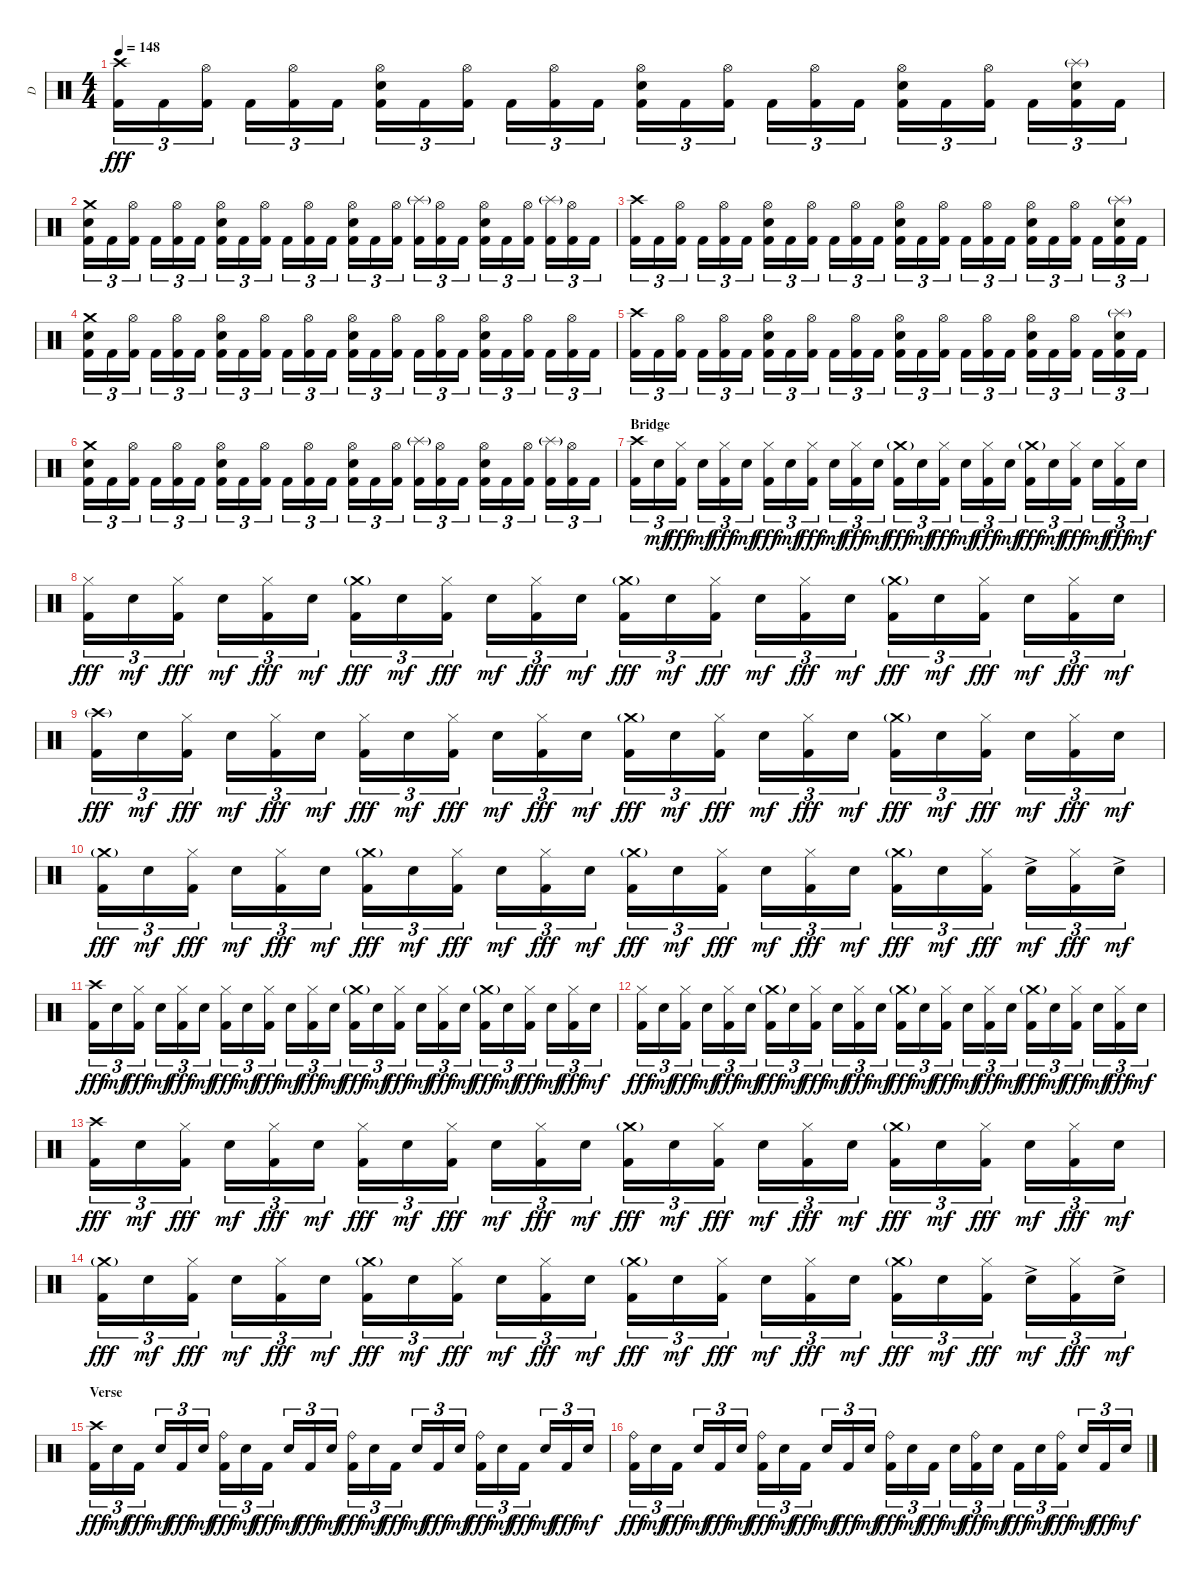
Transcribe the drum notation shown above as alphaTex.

\track ("D" "D") {instrument percussion}
\staff {score}
\articulation defaults
\ts (4 4)
\tempo 148
\clef neutral
\ks c
("Crash high (hit)" "Kick (hit) 2").16{tu (3 2) dy fff} "Kick (hit) 2".16{tu (3 2)} ("Hi-Hat (open)" "Kick (hit) 2").16{tu (3 2)} "Kick (hit) 2".16{tu (3 2)} ("Hi-Hat (open)" "Kick (hit) 2").16{tu (3 2)} "Kick (hit) 2".16{tu (3 2)} ("Hi-Hat (open)" "Electric Snare (hit)" "Kick (hit) 2").16{tu (3 2)} "Kick (hit) 2".16{tu (3 2)} ("Hi-Hat (open)" "Kick (hit) 2").16{tu (3 2)} "Kick (hit) 2".16{tu (3 2)} ("Hi-Hat (open)" "Kick (hit) 2").16{tu (3 2)} "Kick (hit) 2".16{tu (3 2)} ("Hi-Hat (open)" "Electric Snare (hit)" "Kick (hit) 2").16{tu (3 2)} "Kick (hit) 2".16{tu (3 2)} ("Hi-Hat (open)" "Kick (hit) 2").16{tu (3 2)} "Kick (hit) 2".16{tu (3 2)} ("Hi-Hat (open)" "Kick (hit) 2").16{tu (3 2)} "Kick (hit) 2".16{tu (3 2)} ("Hi-Hat (open)" "Electric Snare (hit)" "Kick (hit) 2").16{tu (3 2)} "Kick (hit) 2".16{tu (3 2)} ("Hi-Hat (open)" "Kick (hit) 2").16{tu (3 2)} "Kick (hit) 2".16{tu (3 2)} ("Splash (hit)"{g} "Electric Snare (hit)" "Kick (hit) 2").16{tu (3 2)} "Kick (hit) 2".16{tu (3 2)} |
("Crash medium (hit)" "Electric Snare (hit)" "Kick (hit) 2").16{tu (3 2)} "Kick (hit) 2".16{tu (3 2)} ("Hi-Hat (open)" "Kick (hit) 2").16{tu (3 2)} "Kick (hit) 2".16{tu (3 2)} ("Hi-Hat (open)" "Kick (hit) 2").16{tu (3 2)} "Kick (hit) 2".16{tu (3 2)} ("Hi-Hat (open)" "Electric Snare (hit)" "Kick (hit) 2").16{tu (3 2)} "Kick (hit) 2".16{tu (3 2)} ("Hi-Hat (open)" "Kick (hit) 2").16{tu (3 2)} "Kick (hit) 2".16{tu (3 2)} ("Hi-Hat (open)" "Kick (hit) 2").16{tu (3 2)} "Kick (hit) 2".16{tu (3 2)} ("Hi-Hat (open)" "Electric Snare (hit)" "Kick (hit) 2").16{tu (3 2)} "Kick (hit) 2".16{tu (3 2)} ("Hi-Hat (open)" "Kick (hit) 2").16{tu (3 2)} ("Splash (hit)"{g} "Kick (hit) 2").16{tu (3 2)} ("Hi-Hat (open)" "Kick (hit) 2").16{tu (3 2)} "Kick (hit) 2".16{tu (3 2)} ("Hi-Hat (open)" "Electric Snare (hit)" "Kick (hit) 2").16{tu (3 2)} "Kick (hit) 2".16{tu (3 2)} ("Hi-Hat (open)" "Kick (hit) 2").16{tu (3 2)} ("Splash (hit)"{g} "Kick (hit) 2").16{tu (3 2)} ("Hi-Hat (open)" "Kick (hit) 2").16{tu (3 2)} "Kick (hit) 2".16{tu (3 2)} |
("Crash high (hit)" "Kick (hit) 2").16{tu (3 2)} "Kick (hit) 2".16{tu (3 2)} ("Hi-Hat (open)" "Kick (hit) 2").16{tu (3 2)} "Kick (hit) 2".16{tu (3 2)} ("Hi-Hat (open)" "Kick (hit) 2").16{tu (3 2)} "Kick (hit) 2".16{tu (3 2)} ("Hi-Hat (open)" "Electric Snare (hit)" "Kick (hit) 2").16{tu (3 2)} "Kick (hit) 2".16{tu (3 2)} ("Hi-Hat (open)" "Kick (hit) 2").16{tu (3 2)} "Kick (hit) 2".16{tu (3 2)} ("Hi-Hat (open)" "Kick (hit) 2").16{tu (3 2)} "Kick (hit) 2".16{tu (3 2)} ("Hi-Hat (open)" "Electric Snare (hit)" "Kick (hit) 2").16{tu (3 2)} "Kick (hit) 2".16{tu (3 2)} ("Hi-Hat (open)" "Kick (hit) 2").16{tu (3 2)} "Kick (hit) 2".16{tu (3 2)} ("Hi-Hat (open)" "Kick (hit) 2").16{tu (3 2)} "Kick (hit) 2".16{tu (3 2)} ("Hi-Hat (open)" "Electric Snare (hit)" "Kick (hit) 2").16{tu (3 2)} "Kick (hit) 2".16{tu (3 2)} ("Hi-Hat (open)" "Kick (hit) 2").16{tu (3 2)} "Kick (hit) 2".16{tu (3 2)} ("Splash (hit)"{g} "Electric Snare (hit)" "Kick (hit) 2").16{tu (3 2)} "Kick (hit) 2".16{tu (3 2)} |
("Crash medium (hit)" "Electric Snare (hit)" "Kick (hit) 2").16{tu (3 2)} "Kick (hit) 2".16{tu (3 2)} ("Hi-Hat (open)" "Kick (hit) 2").16{tu (3 2)} "Kick (hit) 2".16{tu (3 2)} ("Hi-Hat (open)" "Kick (hit) 2").16{tu (3 2)} "Kick (hit) 2".16{tu (3 2)} ("Hi-Hat (open)" "Electric Snare (hit)" "Kick (hit) 2").16{tu (3 2)} "Kick (hit) 2".16{tu (3 2)} ("Hi-Hat (open)" "Kick (hit) 2").16{tu (3 2)} "Kick (hit) 2".16{tu (3 2)} ("Hi-Hat (open)" "Kick (hit) 2").16{tu (3 2)} "Kick (hit) 2".16{tu (3 2)} ("Hi-Hat (open)" "Electric Snare (hit)" "Kick (hit) 2").16{tu (3 2)} "Kick (hit) 2".16{tu (3 2)} ("Hi-Hat (open)" "Kick (hit) 2").16{tu (3 2)} "Kick (hit) 2".16{tu (3 2)} ("Hi-Hat (open)" "Kick (hit) 2").16{tu (3 2)} "Kick (hit) 2".16{tu (3 2)} ("Hi-Hat (open)" "Electric Snare (hit)" "Kick (hit) 2").16{tu (3 2)} "Kick (hit) 2".16{tu (3 2)} ("Hi-Hat (open)" "Kick (hit) 2").16{tu (3 2)} "Kick (hit) 2".16{tu (3 2)} ("Hi-Hat (open)" "Kick (hit) 2").16{tu (3 2)} "Kick (hit) 2".16{tu (3 2)} |
("Crash high (hit)" "Kick (hit) 2").16{tu (3 2)} "Kick (hit) 2".16{tu (3 2)} ("Hi-Hat (open)" "Kick (hit) 2").16{tu (3 2)} "Kick (hit) 2".16{tu (3 2)} ("Hi-Hat (open)" "Kick (hit) 2").16{tu (3 2)} "Kick (hit) 2".16{tu (3 2)} ("Hi-Hat (open)" "Electric Snare (hit)" "Kick (hit) 2").16{tu (3 2)} "Kick (hit) 2".16{tu (3 2)} ("Hi-Hat (open)" "Kick (hit) 2").16{tu (3 2)} "Kick (hit) 2".16{tu (3 2)} ("Hi-Hat (open)" "Kick (hit) 2").16{tu (3 2)} "Kick (hit) 2".16{tu (3 2)} ("Hi-Hat (open)" "Electric Snare (hit)" "Kick (hit) 2").16{tu (3 2)} "Kick (hit) 2".16{tu (3 2)} ("Hi-Hat (open)" "Kick (hit) 2").16{tu (3 2)} "Kick (hit) 2".16{tu (3 2)} ("Hi-Hat (open)" "Kick (hit) 2").16{tu (3 2)} "Kick (hit) 2".16{tu (3 2)} ("Hi-Hat (open)" "Electric Snare (hit)" "Kick (hit) 2").16{tu (3 2)} "Kick (hit) 2".16{tu (3 2)} ("Hi-Hat (open)" "Kick (hit) 2").16{tu (3 2)} "Kick (hit) 2".16{tu (3 2)} ("Splash (hit)"{g} "Electric Snare (hit)" "Kick (hit) 2").16{tu (3 2)} "Kick (hit) 2".16{tu (3 2)} |
("Crash medium (hit)" "Electric Snare (hit)" "Kick (hit) 2").16{tu (3 2)} "Kick (hit) 2".16{tu (3 2)} ("Hi-Hat (open)" "Kick (hit) 2").16{tu (3 2)} "Kick (hit) 2".16{tu (3 2)} ("Hi-Hat (open)" "Kick (hit) 2").16{tu (3 2)} "Kick (hit) 2".16{tu (3 2)} ("Hi-Hat (open)" "Electric Snare (hit)" "Kick (hit) 2").16{tu (3 2)} "Kick (hit) 2".16{tu (3 2)} ("Hi-Hat (open)" "Kick (hit) 2").16{tu (3 2)} "Kick (hit) 2".16{tu (3 2)} ("Hi-Hat (open)" "Kick (hit) 2").16{tu (3 2)} "Kick (hit) 2".16{tu (3 2)} ("Hi-Hat (open)" "Electric Snare (hit)" "Kick (hit) 2").16{tu (3 2)} "Kick (hit) 2".16{tu (3 2)} ("Hi-Hat (open)" "Kick (hit) 2").16{tu (3 2)} ("Splash (hit)"{g} "Kick (hit) 2").16{tu (3 2)} ("Hi-Hat (open)" "Kick (hit) 2").16{tu (3 2)} "Kick (hit) 2".16{tu (3 2)} ("Hi-Hat (open)" "Electric Snare (hit)" "Kick (hit) 2").16{tu (3 2)} "Kick (hit) 2".16{tu (3 2)} ("Hi-Hat (open)" "Kick (hit) 2").16{tu (3 2)} ("Splash (hit)"{g} "Kick (hit) 2").16{tu (3 2)} ("Hi-Hat (open)" "Kick (hit) 2").16{tu (3 2)} "Kick (hit) 2".16{tu (3 2)} |
\section ("" "Bridge")
("Crash high (hit)" "Kick (hit) 2").16{tu (3 2)} "Electric Snare (hit)".16{tu (3 2) dy mf} ("Hi-Hat (closed)" "Kick (hit) 2").16{tu (3 2) dy fff} "Electric Snare (hit)".16{tu (3 2) dy mf} ("Hi-Hat (closed)" "Kick (hit) 2").16{tu (3 2) dy fff} "Electric Snare (hit)".16{tu (3 2) dy mf} ("Hi-Hat (closed)" "Kick (hit) 2").16{tu (3 2) dy fff} "Electric Snare (hit)".16{tu (3 2) dy mf} ("Hi-Hat (closed)" "Kick (hit) 2").16{tu (3 2) dy fff} "Electric Snare (hit)".16{tu (3 2) dy mf} ("Hi-Hat (closed)" "Kick (hit) 2").16{tu (3 2) dy fff} "Electric Snare (hit)".16{tu (3 2) dy mf} ("Crash medium (hit)"{g} "Kick (hit) 2").16{tu (3 2) dy fff} "Electric Snare (hit)".16{tu (3 2) dy mf} ("Hi-Hat (closed)" "Kick (hit) 2").16{tu (3 2) dy fff} "Electric Snare (hit)".16{tu (3 2) dy mf} ("Hi-Hat (closed)" "Kick (hit) 2").16{tu (3 2) dy fff} "Electric Snare (hit)".16{tu (3 2) dy mf} ("Crash medium (hit)"{g} "Kick (hit) 2").16{tu (3 2) dy fff} "Electric Snare (hit)".16{tu (3 2) dy mf} ("Hi-Hat (closed)" "Kick (hit) 2").16{tu (3 2) dy fff} "Electric Snare (hit)".16{tu (3 2) dy mf} ("Hi-Hat (closed)" "Kick (hit) 2").16{tu (3 2) dy fff} "Electric Snare (hit)".16{tu (3 2) dy mf} |
("Hi-Hat (closed)" "Kick (hit) 2").16{tu (3 2) dy fff} "Electric Snare (hit)".16{tu (3 2) dy mf} ("Hi-Hat (closed)" "Kick (hit) 2").16{tu (3 2) dy fff} "Electric Snare (hit)".16{tu (3 2) dy mf} ("Hi-Hat (closed)" "Kick (hit) 2").16{tu (3 2) dy fff} "Electric Snare (hit)".16{tu (3 2) dy mf} ("Crash medium (hit)"{g} "Kick (hit) 2").16{tu (3 2) dy fff} "Electric Snare (hit)".16{tu (3 2) dy mf} ("Hi-Hat (closed)" "Kick (hit) 2").16{tu (3 2) dy fff} "Electric Snare (hit)".16{tu (3 2) dy mf} ("Hi-Hat (closed)" "Kick (hit) 2").16{tu (3 2) dy fff} "Electric Snare (hit)".16{tu (3 2) dy mf} ("Crash medium (hit)"{g} "Kick (hit) 2").16{tu (3 2) dy fff} "Electric Snare (hit)".16{tu (3 2) dy mf} ("Hi-Hat (closed)" "Kick (hit) 2").16{tu (3 2) dy fff} "Electric Snare (hit)".16{tu (3 2) dy mf} ("Hi-Hat (closed)" "Kick (hit) 2").16{tu (3 2) dy fff} "Electric Snare (hit)".16{tu (3 2) dy mf} ("Crash medium (hit)"{g} "Kick (hit) 2").16{tu (3 2) dy fff} "Electric Snare (hit)".16{tu (3 2) dy mf} ("Hi-Hat (closed)" "Kick (hit) 2").16{tu (3 2) dy fff} "Electric Snare (hit)".16{tu (3 2) dy mf} ("Hi-Hat (closed)" "Kick (hit) 2").16{tu (3 2) dy fff} "Electric Snare (hit)".16{tu (3 2) dy mf} |
("Crash high (hit)"{g} "Kick (hit) 2").16{tu (3 2) dy fff} "Electric Snare (hit)".16{tu (3 2) dy mf} ("Hi-Hat (closed)" "Kick (hit) 2").16{tu (3 2) dy fff} "Electric Snare (hit)".16{tu (3 2) dy mf} ("Hi-Hat (closed)" "Kick (hit) 2").16{tu (3 2) dy fff} "Electric Snare (hit)".16{tu (3 2) dy mf} ("Hi-Hat (closed)" "Kick (hit) 2").16{tu (3 2) dy fff} "Electric Snare (hit)".16{tu (3 2) dy mf} ("Hi-Hat (closed)" "Kick (hit) 2").16{tu (3 2) dy fff} "Electric Snare (hit)".16{tu (3 2) dy mf} ("Hi-Hat (closed)" "Kick (hit) 2").16{tu (3 2) dy fff} "Electric Snare (hit)".16{tu (3 2) dy mf} ("Crash medium (hit)"{g} "Kick (hit) 2").16{tu (3 2) dy fff} "Electric Snare (hit)".16{tu (3 2) dy mf} ("Hi-Hat (closed)" "Kick (hit) 2").16{tu (3 2) dy fff} "Electric Snare (hit)".16{tu (3 2) dy mf} ("Hi-Hat (closed)" "Kick (hit) 2").16{tu (3 2) dy fff} "Electric Snare (hit)".16{tu (3 2) dy mf} ("Crash medium (hit)"{g} "Kick (hit) 2").16{tu (3 2) dy fff} "Electric Snare (hit)".16{tu (3 2) dy mf} ("Hi-Hat (closed)" "Kick (hit) 2").16{tu (3 2) dy fff} "Electric Snare (hit)".16{tu (3 2) dy mf} ("Hi-Hat (closed)" "Kick (hit) 2").16{tu (3 2) dy fff} "Electric Snare (hit)".16{tu (3 2) dy mf} |
("Crash medium (hit)"{g} "Kick (hit) 2").16{tu (3 2) dy fff} "Electric Snare (hit)".16{tu (3 2) dy mf} ("Hi-Hat (closed)" "Kick (hit) 2").16{tu (3 2) dy fff} "Electric Snare (hit)".16{tu (3 2) dy mf} ("Hi-Hat (closed)" "Kick (hit) 2").16{tu (3 2) dy fff} "Electric Snare (hit)".16{tu (3 2) dy mf} ("Crash medium (hit)"{g} "Kick (hit) 2").16{tu (3 2) dy fff} "Electric Snare (hit)".16{tu (3 2) dy mf} ("Hi-Hat (closed)" "Kick (hit) 2").16{tu (3 2) dy fff} "Electric Snare (hit)".16{tu (3 2) dy mf} ("Hi-Hat (closed)" "Kick (hit) 2").16{tu (3 2) dy fff} "Electric Snare (hit)".16{tu (3 2) dy mf} ("Crash medium (hit)"{g} "Kick (hit) 2").16{tu (3 2) dy fff} "Electric Snare (hit)".16{tu (3 2) dy mf} ("Hi-Hat (closed)" "Kick (hit) 2").16{tu (3 2) dy fff} "Electric Snare (hit)".16{tu (3 2) dy mf} ("Hi-Hat (closed)" "Kick (hit) 2").16{tu (3 2) dy fff} "Electric Snare (hit)".16{tu (3 2) dy mf} ("Crash medium (hit)"{g} "Kick (hit) 2").16{tu (3 2) dy fff} "Electric Snare (hit)".16{tu (3 2) dy mf} ("Hi-Hat (closed)" "Kick (hit) 2").16{tu (3 2) dy fff} "Electric Snare (hit)"{ac}.16{tu (3 2) dy mf} ("Hi-Hat (closed)" "Kick (hit) 2").16{tu (3 2) dy fff} "Electric Snare (hit)"{ac}.16{tu (3 2) dy mf} |
("Crash high (hit)" "Kick (hit) 2").16{tu (3 2) dy fff} "Electric Snare (hit)".16{tu (3 2) dy mf} ("Hi-Hat (closed)" "Kick (hit) 2").16{tu (3 2) dy fff} "Electric Snare (hit)".16{tu (3 2) dy mf} ("Hi-Hat (closed)" "Kick (hit) 2").16{tu (3 2) dy fff} "Electric Snare (hit)".16{tu (3 2) dy mf} ("Hi-Hat (closed)" "Kick (hit) 2").16{tu (3 2) dy fff} "Electric Snare (hit)".16{tu (3 2) dy mf} ("Hi-Hat (closed)" "Kick (hit) 2").16{tu (3 2) dy fff} "Electric Snare (hit)".16{tu (3 2) dy mf} ("Hi-Hat (closed)" "Kick (hit) 2").16{tu (3 2) dy fff} "Electric Snare (hit)".16{tu (3 2) dy mf} ("Crash medium (hit)"{g} "Kick (hit) 2").16{tu (3 2) dy fff} "Electric Snare (hit)".16{tu (3 2) dy mf} ("Hi-Hat (closed)" "Kick (hit) 2").16{tu (3 2) dy fff} "Electric Snare (hit)".16{tu (3 2) dy mf} ("Hi-Hat (closed)" "Kick (hit) 2").16{tu (3 2) dy fff} "Electric Snare (hit)".16{tu (3 2) dy mf} ("Crash medium (hit)"{g} "Kick (hit) 2").16{tu (3 2) dy fff} "Electric Snare (hit)".16{tu (3 2) dy mf} ("Hi-Hat (closed)" "Kick (hit) 2").16{tu (3 2) dy fff} "Electric Snare (hit)".16{tu (3 2) dy mf} ("Hi-Hat (closed)" "Kick (hit) 2").16{tu (3 2) dy fff} "Electric Snare (hit)".16{tu (3 2) dy mf} |
("Hi-Hat (closed)" "Kick (hit) 2").16{tu (3 2) dy fff} "Electric Snare (hit)".16{tu (3 2) dy mf} ("Hi-Hat (closed)" "Kick (hit) 2").16{tu (3 2) dy fff} "Electric Snare (hit)".16{tu (3 2) dy mf} ("Hi-Hat (closed)" "Kick (hit) 2").16{tu (3 2) dy fff} "Electric Snare (hit)".16{tu (3 2) dy mf} ("Crash medium (hit)"{g} "Kick (hit) 2").16{tu (3 2) dy fff} "Electric Snare (hit)".16{tu (3 2) dy mf} ("Hi-Hat (closed)" "Kick (hit) 2").16{tu (3 2) dy fff} "Electric Snare (hit)".16{tu (3 2) dy mf} ("Hi-Hat (closed)" "Kick (hit) 2").16{tu (3 2) dy fff} "Electric Snare (hit)".16{tu (3 2) dy mf} ("Crash medium (hit)"{g} "Kick (hit) 2").16{tu (3 2) dy fff} "Electric Snare (hit)".16{tu (3 2) dy mf} ("Hi-Hat (closed)" "Kick (hit) 2").16{tu (3 2) dy fff} "Electric Snare (hit)".16{tu (3 2) dy mf} ("Hi-Hat (closed)" "Kick (hit) 2").16{tu (3 2) dy fff} "Electric Snare (hit)".16{tu (3 2) dy mf} ("Crash medium (hit)"{g} "Kick (hit) 2").16{tu (3 2) dy fff} "Electric Snare (hit)".16{tu (3 2) dy mf} ("Hi-Hat (closed)" "Kick (hit) 2").16{tu (3 2) dy fff} "Electric Snare (hit)".16{tu (3 2) dy mf} ("Hi-Hat (closed)" "Kick (hit) 2").16{tu (3 2) dy fff} "Electric Snare (hit)".16{tu (3 2) dy mf} |
("Crash high (hit)" "Kick (hit) 2").16{tu (3 2) dy fff} "Electric Snare (hit)".16{tu (3 2) dy mf} ("Hi-Hat (closed)" "Kick (hit) 2").16{tu (3 2) dy fff} "Electric Snare (hit)".16{tu (3 2) dy mf} ("Hi-Hat (closed)" "Kick (hit) 2").16{tu (3 2) dy fff} "Electric Snare (hit)".16{tu (3 2) dy mf} ("Hi-Hat (closed)" "Kick (hit) 2").16{tu (3 2) dy fff} "Electric Snare (hit)".16{tu (3 2) dy mf} ("Hi-Hat (closed)" "Kick (hit) 2").16{tu (3 2) dy fff} "Electric Snare (hit)".16{tu (3 2) dy mf} ("Hi-Hat (closed)" "Kick (hit) 2").16{tu (3 2) dy fff} "Electric Snare (hit)".16{tu (3 2) dy mf} ("Crash medium (hit)"{g} "Kick (hit) 2").16{tu (3 2) dy fff} "Electric Snare (hit)".16{tu (3 2) dy mf} ("Hi-Hat (closed)" "Kick (hit) 2").16{tu (3 2) dy fff} "Electric Snare (hit)".16{tu (3 2) dy mf} ("Hi-Hat (closed)" "Kick (hit) 2").16{tu (3 2) dy fff} "Electric Snare (hit)".16{tu (3 2) dy mf} ("Crash medium (hit)"{g} "Kick (hit) 2").16{tu (3 2) dy fff} "Electric Snare (hit)".16{tu (3 2) dy mf} ("Hi-Hat (closed)" "Kick (hit) 2").16{tu (3 2) dy fff} "Electric Snare (hit)".16{tu (3 2) dy mf} ("Hi-Hat (closed)" "Kick (hit) 2").16{tu (3 2) dy fff} "Electric Snare (hit)".16{tu (3 2) dy mf} |
("Crash medium (hit)"{g} "Kick (hit) 2").16{tu (3 2) dy fff} "Electric Snare (hit)".16{tu (3 2) dy mf} ("Hi-Hat (closed)" "Kick (hit) 2").16{tu (3 2) dy fff} "Electric Snare (hit)".16{tu (3 2) dy mf} ("Hi-Hat (closed)" "Kick (hit) 2").16{tu (3 2) dy fff} "Electric Snare (hit)".16{tu (3 2) dy mf} ("Crash medium (hit)"{g} "Kick (hit) 2").16{tu (3 2) dy fff} "Electric Snare (hit)".16{tu (3 2) dy mf} ("Hi-Hat (closed)" "Kick (hit) 2").16{tu (3 2) dy fff} "Electric Snare (hit)".16{tu (3 2) dy mf} ("Hi-Hat (closed)" "Kick (hit) 2").16{tu (3 2) dy fff} "Electric Snare (hit)".16{tu (3 2) dy mf} ("Crash medium (hit)"{g} "Kick (hit) 2").16{tu (3 2) dy fff} "Electric Snare (hit)".16{tu (3 2) dy mf} ("Hi-Hat (closed)" "Kick (hit) 2").16{tu (3 2) dy fff} "Electric Snare (hit)".16{tu (3 2) dy mf} ("Hi-Hat (closed)" "Kick (hit) 2").16{tu (3 2) dy fff} "Electric Snare (hit)".16{tu (3 2) dy mf} ("Crash medium (hit)"{g} "Kick (hit) 2").16{tu (3 2) dy fff} "Electric Snare (hit)".16{tu (3 2) dy mf} ("Hi-Hat (closed)" "Kick (hit) 2").16{tu (3 2) dy fff} "Electric Snare (hit)"{ac}.16{tu (3 2) dy mf} ("Hi-Hat (closed)" "Kick (hit) 2").16{tu (3 2) dy fff} "Electric Snare (hit)"{ac}.16{tu (3 2) dy mf} |
\section ("" "Verse")
("Crash high (hit)" "Kick (hit) 2").16{tu (3 2) dy fff} "Electric Snare (hit)".16{tu (3 2) dy mf} "Kick (hit) 2".16{tu (3 2) dy fff} "Electric Snare (hit)".16{tu (3 2) dy mf} "Kick (hit) 2".16{tu (3 2) dy fff} "Electric Snare (hit)".16{tu (3 2) dy mf} ("Ride (bell)" "Kick (hit) 2").16{tu (3 2) dy fff} "Electric Snare (hit)".16{tu (3 2) dy mf} "Kick (hit) 2".16{tu (3 2) dy fff} "Electric Snare (hit)".16{tu (3 2) dy mf} "Kick (hit) 2".16{tu (3 2) dy fff} "Electric Snare (hit)".16{tu (3 2) dy mf} ("Ride (bell)" "Kick (hit) 2").16{tu (3 2) dy fff} "Electric Snare (hit)".16{tu (3 2) dy mf} "Kick (hit) 2".16{tu (3 2) dy fff} "Electric Snare (hit)".16{tu (3 2) dy mf} "Kick (hit) 2".16{tu (3 2) dy fff} "Electric Snare (hit)".16{tu (3 2) dy mf} ("Ride (bell)" "Kick (hit) 2").16{tu (3 2) dy fff} "Electric Snare (hit)".16{tu (3 2) dy mf} "Kick (hit) 2".16{tu (3 2) dy fff} "Electric Snare (hit)".16{tu (3 2) dy mf} "Kick (hit) 2".16{tu (3 2) dy fff} "Electric Snare (hit)".16{tu (3 2) dy mf} |
("Ride (bell)" "Kick (hit) 2").16{tu (3 2) dy fff} "Electric Snare (hit)".16{tu (3 2) dy mf} "Kick (hit) 2".16{tu (3 2) dy fff} "Electric Snare (hit)".16{tu (3 2) dy mf} "Kick (hit) 2".16{tu (3 2) dy fff} "Electric Snare (hit)".16{tu (3 2) dy mf} ("Ride (bell)" "Kick (hit) 2").16{tu (3 2) dy fff} "Electric Snare (hit)".16{tu (3 2) dy mf} "Kick (hit) 2".16{tu (3 2) dy fff} "Electric Snare (hit)".16{tu (3 2) dy mf} "Kick (hit) 2".16{tu (3 2) dy fff} "Electric Snare (hit)".16{tu (3 2) dy mf} ("Ride (bell)" "Kick (hit) 2").16{tu (3 2) dy fff} "Electric Snare (hit)".16{tu (3 2) dy mf} "Kick (hit) 2".16{tu (3 2) dy fff} "Electric Snare (hit)".16{tu (3 2) dy mf} ("Ride (bell)" "Kick (hit) 2").16{tu (3 2) dy fff} "Electric Snare (hit)".16{tu (3 2) dy mf} "Kick (hit) 2".16{tu (3 2) dy fff} "Electric Snare (hit)".16{tu (3 2) dy mf} ("Ride (bell)" "Kick (hit) 2").16{tu (3 2) dy fff} "Electric Snare (hit)".16{tu (3 2) dy mf} "Kick (hit) 2".16{tu (3 2) dy fff} "Electric Snare (hit)".16{tu (3 2) dy mf}
